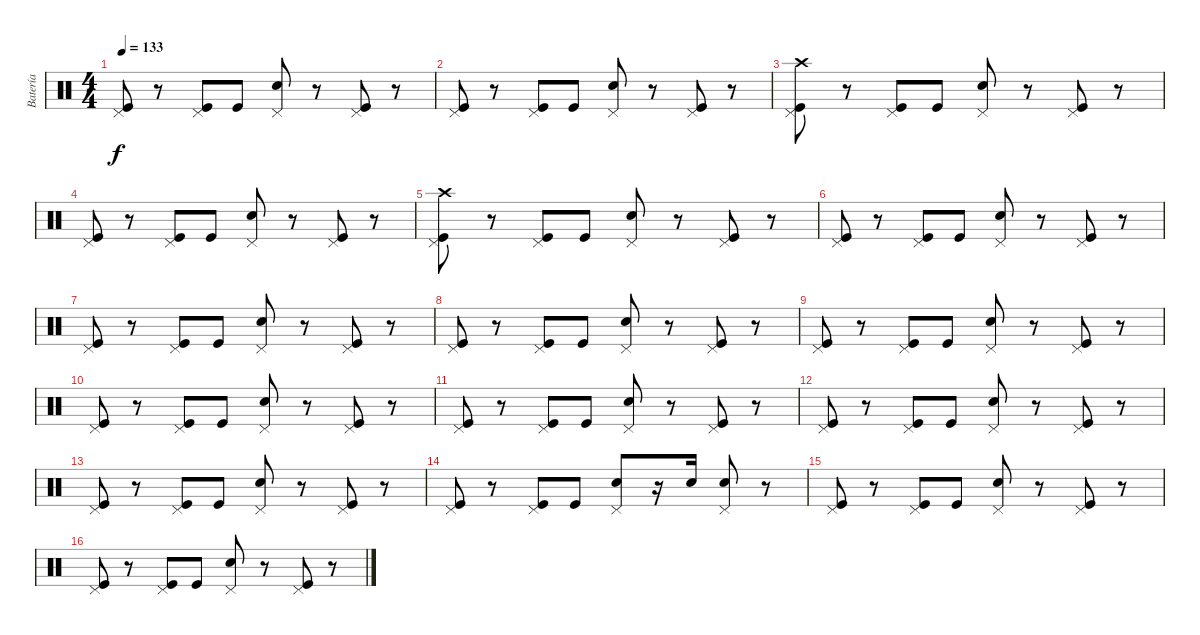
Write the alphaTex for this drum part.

\track ("Batería" "Batería") {instrument percussion}
\staff {score}
\articulation defaults
\ts (4 4)
\tempo 133
\clef neutral
\ks c
("Pedal Hi-Hat (hit)" "Kick (hit)").8{dy f} r.8 ("Pedal Hi-Hat (hit)" "Kick (hit)").8 "Kick (hit)".8 ("Pedal Hi-Hat (hit)" "Snare (hit) 2").8 r.8 ("Pedal Hi-Hat (hit)" "Kick (hit)").8 r.8 |
("Pedal Hi-Hat (hit)" "Kick (hit)").8 r.8 ("Pedal Hi-Hat (hit)" "Kick (hit)").8 "Kick (hit)".8 ("Pedal Hi-Hat (hit)" "Snare (hit) 2").8 r.8 ("Pedal Hi-Hat (hit)" "Kick (hit)").8 r.8 |
("Pedal Hi-Hat (hit)" "Crash high (hit)" "Kick (hit)").8 r.8 ("Pedal Hi-Hat (hit)" "Kick (hit)").8 "Kick (hit)".8 ("Pedal Hi-Hat (hit)" "Snare (hit) 2").8 r.8 ("Pedal Hi-Hat (hit)" "Kick (hit)").8 r.8 |
("Pedal Hi-Hat (hit)" "Kick (hit)").8 r.8 ("Pedal Hi-Hat (hit)" "Kick (hit)").8 "Kick (hit)".8 ("Pedal Hi-Hat (hit)" "Snare (hit) 2").8 r.8 ("Pedal Hi-Hat (hit)" "Kick (hit)").8 r.8 |
("Pedal Hi-Hat (hit)" "Crash high (hit)" "Kick (hit)").8 r.8 ("Pedal Hi-Hat (hit)" "Kick (hit)").8 "Kick (hit)".8 ("Pedal Hi-Hat (hit)" "Snare (hit) 2").8 r.8 ("Pedal Hi-Hat (hit)" "Kick (hit)").8 r.8 |
("Pedal Hi-Hat (hit)" "Kick (hit)").8 r.8 ("Pedal Hi-Hat (hit)" "Kick (hit)").8 "Kick (hit)".8 ("Pedal Hi-Hat (hit)" "Snare (hit) 2").8 r.8 ("Pedal Hi-Hat (hit)" "Kick (hit)").8 r.8 |
("Pedal Hi-Hat (hit)" "Kick (hit)").8 r.8 ("Pedal Hi-Hat (hit)" "Kick (hit)").8 "Kick (hit)".8 ("Pedal Hi-Hat (hit)" "Snare (hit) 2").8 r.8 ("Pedal Hi-Hat (hit)" "Kick (hit)").8 r.8 |
("Pedal Hi-Hat (hit)" "Kick (hit)").8 r.8 ("Pedal Hi-Hat (hit)" "Kick (hit)").8 "Kick (hit)".8 ("Pedal Hi-Hat (hit)" "Snare (hit) 2").8 r.8 ("Pedal Hi-Hat (hit)" "Kick (hit)").8 r.8 |
("Pedal Hi-Hat (hit)" "Kick (hit)").8 r.8 ("Pedal Hi-Hat (hit)" "Kick (hit)").8 "Kick (hit)".8 ("Pedal Hi-Hat (hit)" "Snare (hit) 2").8 r.8 ("Pedal Hi-Hat (hit)" "Kick (hit)").8 r.8 |
("Pedal Hi-Hat (hit)" "Kick (hit)").8 r.8 ("Pedal Hi-Hat (hit)" "Kick (hit)").8 "Kick (hit)".8 ("Pedal Hi-Hat (hit)" "Snare (hit) 2").8 r.8 ("Pedal Hi-Hat (hit)" "Kick (hit)").8 r.8 |
("Pedal Hi-Hat (hit)" "Kick (hit)").8 r.8 ("Pedal Hi-Hat (hit)" "Kick (hit)").8 "Kick (hit)".8 ("Pedal Hi-Hat (hit)" "Snare (hit) 2").8 r.8 ("Pedal Hi-Hat (hit)" "Kick (hit)").8 r.8 |
("Pedal Hi-Hat (hit)" "Kick (hit)").8 r.8 ("Pedal Hi-Hat (hit)" "Kick (hit)").8 "Kick (hit)".8 ("Pedal Hi-Hat (hit)" "Snare (hit) 2").8 r.8 ("Pedal Hi-Hat (hit)" "Kick (hit)").8 r.8 |
("Pedal Hi-Hat (hit)" "Kick (hit)").8 r.8 ("Pedal Hi-Hat (hit)" "Kick (hit)").8 "Kick (hit)".8 ("Pedal Hi-Hat (hit)" "Snare (hit) 2").8 r.8 ("Pedal Hi-Hat (hit)" "Kick (hit)").8 r.8 |
("Pedal Hi-Hat (hit)" "Kick (hit)").8 r.8 ("Pedal Hi-Hat (hit)" "Kick (hit)").8 "Kick (hit)".8 ("Pedal Hi-Hat (hit)" "Snare (hit) 2").8 r.16 "Snare (hit) 2".16 ("Pedal Hi-Hat (hit)" "Snare (hit) 2").8 r.8 |
("Pedal Hi-Hat (hit)" "Kick (hit)").8 r.8 ("Pedal Hi-Hat (hit)" "Kick (hit)").8 "Kick (hit)".8 ("Pedal Hi-Hat (hit)" "Snare (hit) 2").8 r.8 ("Pedal Hi-Hat (hit)" "Kick (hit)").8 r.8 |
("Pedal Hi-Hat (hit)" "Kick (hit)").8 r.8 ("Pedal Hi-Hat (hit)" "Kick (hit)").8 "Kick (hit)".8 ("Pedal Hi-Hat (hit)" "Snare (hit) 2").8 r.8 ("Pedal Hi-Hat (hit)" "Kick (hit)").8 r.8
